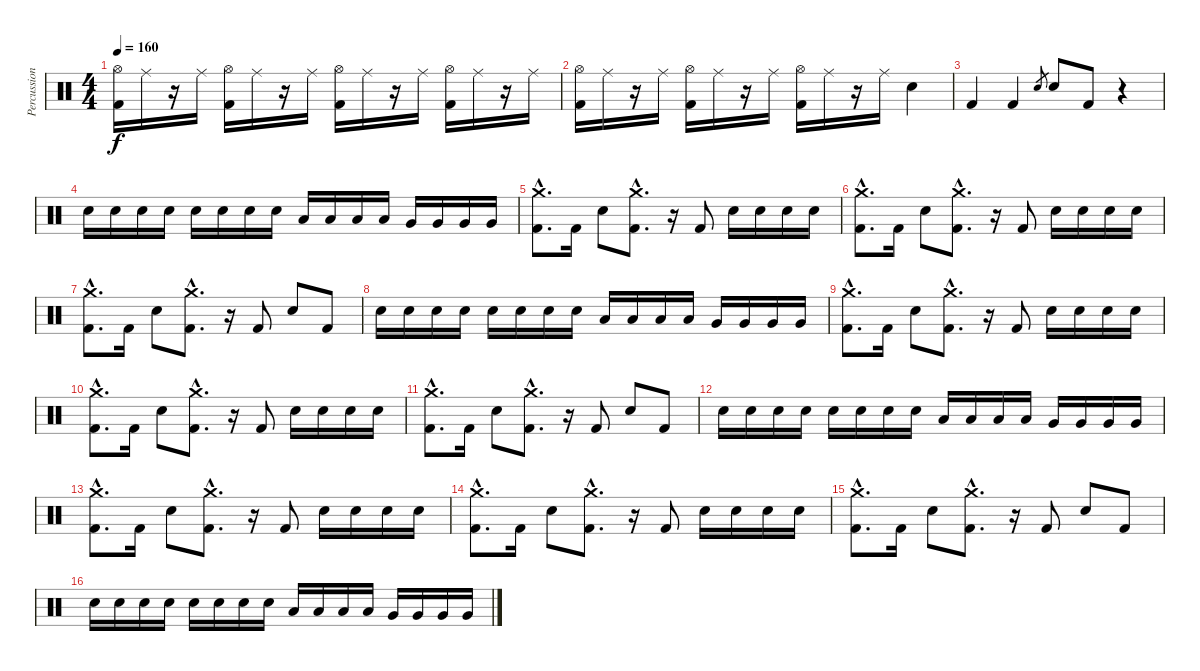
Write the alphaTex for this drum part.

\track ("Percussion" "Percussion") {instrument percussion}
\staff {score}
\articulation defaults
\ts (4 4)
\tempo 160
\clef neutral
\ks c
("Kick (hit) 2" "Hi-Hat (open)").16{dy f} "Ride (middle)".16 r.16 "Ride (middle)".16 ("Kick (hit) 2" "Hi-Hat (open)").16 "Ride (middle)".16 r.16 "Ride (middle)".16 ("Kick (hit) 2" "Hi-Hat (open)").16 "Ride (middle)".16 r.16 "Ride (middle)".16 ("Kick (hit) 2" "Hi-Hat (open)").16 "Ride (middle)".16 r.16 "Ride (middle)".16 |
("Kick (hit) 2" "Hi-Hat (open)").16 "Ride (middle)".16 r.16 "Ride (middle)".16 ("Kick (hit) 2" "Hi-Hat (open)").16 "Ride (middle)".16 r.16 "Ride (middle)".16 ("Kick (hit) 2" "Hi-Hat (open)").16 "Ride (middle)".16 r.16 "Ride (middle)".16 "Electric Snare (hit)".4 |
"Kick (hit) 2".4 "Kick (hit) 2".4 "Electric Snare (hit)".8{gr} "Electric Snare (hit)".8 "Kick (hit) 2".8 r.4 |
"Electric Snare (hit)".16 "Electric Snare (hit)".16 "Electric Snare (hit)".16 "Electric Snare (hit)".16 "Electric Snare (hit)".16 "Electric Snare (hit)".16 "Electric Snare (hit)".16 "Electric Snare (hit)".16 "Low Tom (hit)".16 "Low Tom (hit)".16 "Low Tom (hit)".16 "Low Tom (hit)".16 "Very Low Tom (hit)".16 "Very Low Tom (hit)".16 "Very Low Tom (hit)".16 "Very Low Tom (hit)".16 |
("Kick (hit) 2"{hac} "Crash medium (hit)"{hac}).8{d} "Kick (hit) 2".16 "Electric Snare (hit)".8 ("Kick (hit) 2"{hac} "Crash medium (hit)"{hac}).8{d} r.16 "Kick (hit) 2".8 "Electric Snare (hit)".16 "Electric Snare (hit)".16 "Electric Snare (hit)".16 "Electric Snare (hit)".16 |
("Kick (hit) 2"{hac} "Crash medium (hit)"{hac}).8{d} "Kick (hit) 2".16 "Electric Snare (hit)".8 ("Kick (hit) 2"{hac} "Crash medium (hit)"{hac}).8{d} r.16 "Kick (hit) 2".8 "Electric Snare (hit)".16 "Electric Snare (hit)".16 "Electric Snare (hit)".16 "Electric Snare (hit)".16 |
("Kick (hit) 2"{hac} "Crash medium (hit)"{hac}).8{d} "Kick (hit) 2".16 "Electric Snare (hit)".8 ("Kick (hit) 2"{hac} "Crash medium (hit)"{hac}).8{d} r.16 "Kick (hit) 2".8 "Electric Snare (hit)".8 "Kick (hit) 2".8 |
"Electric Snare (hit)".16 "Electric Snare (hit)".16 "Electric Snare (hit)".16 "Electric Snare (hit)".16 "Electric Snare (hit)".16 "Electric Snare (hit)".16 "Electric Snare (hit)".16 "Electric Snare (hit)".16 "Low Tom (hit)".16 "Low Tom (hit)".16 "Low Tom (hit)".16 "Low Tom (hit)".16 "Very Low Tom (hit)".16 "Very Low Tom (hit)".16 "Very Low Tom (hit)".16 "Very Low Tom (hit)".16 |
("Kick (hit) 2"{hac} "Crash medium (hit)"{hac}).8{d} "Kick (hit) 2".16 "Electric Snare (hit)".8 ("Kick (hit) 2"{hac} "Crash medium (hit)"{hac}).8{d} r.16 "Kick (hit) 2".8 "Electric Snare (hit)".16 "Electric Snare (hit)".16 "Electric Snare (hit)".16 "Electric Snare (hit)".16 |
("Kick (hit) 2"{hac} "Crash medium (hit)"{hac}).8{d} "Kick (hit) 2".16 "Electric Snare (hit)".8 ("Kick (hit) 2"{hac} "Crash medium (hit)"{hac}).8{d} r.16 "Kick (hit) 2".8 "Electric Snare (hit)".16 "Electric Snare (hit)".16 "Electric Snare (hit)".16 "Electric Snare (hit)".16 |
("Kick (hit) 2"{hac} "Crash medium (hit)"{hac}).8{d} "Kick (hit) 2".16 "Electric Snare (hit)".8 ("Kick (hit) 2"{hac} "Crash medium (hit)"{hac}).8{d} r.16 "Kick (hit) 2".8 "Electric Snare (hit)".8 "Kick (hit) 2".8 |
"Electric Snare (hit)".16 "Electric Snare (hit)".16 "Electric Snare (hit)".16 "Electric Snare (hit)".16 "Electric Snare (hit)".16 "Electric Snare (hit)".16 "Electric Snare (hit)".16 "Electric Snare (hit)".16 "Low Tom (hit)".16 "Low Tom (hit)".16 "Low Tom (hit)".16 "Low Tom (hit)".16 "Very Low Tom (hit)".16 "Very Low Tom (hit)".16 "Very Low Tom (hit)".16 "Very Low Tom (hit)".16 |
("Kick (hit) 2"{hac} "Crash medium (hit)"{hac}).8{d} "Kick (hit) 2".16 "Electric Snare (hit)".8 ("Kick (hit) 2"{hac} "Crash medium (hit)"{hac}).8{d} r.16 "Kick (hit) 2".8 "Electric Snare (hit)".16 "Electric Snare (hit)".16 "Electric Snare (hit)".16 "Electric Snare (hit)".16 |
("Kick (hit) 2"{hac} "Crash medium (hit)"{hac}).8{d} "Kick (hit) 2".16 "Electric Snare (hit)".8 ("Kick (hit) 2"{hac} "Crash medium (hit)"{hac}).8{d} r.16 "Kick (hit) 2".8 "Electric Snare (hit)".16 "Electric Snare (hit)".16 "Electric Snare (hit)".16 "Electric Snare (hit)".16 |
("Kick (hit) 2"{hac} "Crash medium (hit)"{hac}).8{d} "Kick (hit) 2".16 "Electric Snare (hit)".8 ("Kick (hit) 2"{hac} "Crash medium (hit)"{hac}).8{d} r.16 "Kick (hit) 2".8 "Electric Snare (hit)".8 "Kick (hit) 2".8 |
"Electric Snare (hit)".16 "Electric Snare (hit)".16 "Electric Snare (hit)".16 "Electric Snare (hit)".16 "Electric Snare (hit)".16 "Electric Snare (hit)".16 "Electric Snare (hit)".16 "Electric Snare (hit)".16 "Low Tom (hit)".16 "Low Tom (hit)".16 "Low Tom (hit)".16 "Low Tom (hit)".16 "Very Low Tom (hit)".16 "Very Low Tom (hit)".16 "Very Low Tom (hit)".16 "Very Low Tom (hit)".16
